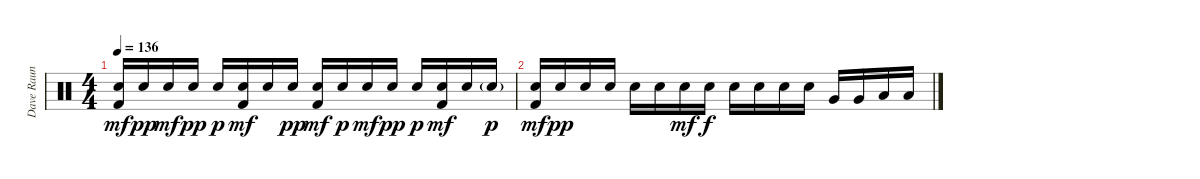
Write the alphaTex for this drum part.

\track ("Dave Raun" "Dave Raun") {instrument percussion}
\staff {score}
\articulation defaults
\ts (4 4)
\tempo 136
\clef neutral
\ks c
("Electric Snare (hit)" "Kick (hit) 2").16{dy mf} "Electric Snare (hit)".16{dy pp} "Electric Snare (hit)".16{dy mf} "Electric Snare (hit)".16{dy pp} "Electric Snare (hit)".16{dy p} ("Electric Snare (hit)" "Kick (hit) 2").16{dy mf} "Electric Snare (hit)".16 "Electric Snare (hit)".16{dy pp} ("Electric Snare (hit)" "Kick (hit) 2").16{dy mf} "Electric Snare (hit)".16{dy p} "Electric Snare (hit)".16{dy mf} "Electric Snare (hit)".16{dy pp} "Electric Snare (hit)".16{dy p} ("Electric Snare (hit)" "Kick (hit) 2").16{dy mf} "Electric Snare (hit)".16 "Electric Snare (hit)"{g}.16{dy p} |
("Electric Snare (hit)" "Kick (hit) 2").16{dy mf} "Electric Snare (hit)".16{dy pp} "Electric Snare (hit)".16 "Electric Snare (hit)".16 "Electric Snare (hit)".16 "Electric Snare (hit)".16 "Electric Snare (hit)".16{dy mf} "Electric Snare (hit)".16{dy f} "Electric Snare (hit)".16 "Electric Snare (hit)".16 "Electric Snare (hit)".16 "Electric Snare (hit)".16 "Very Low Tom (hit)".16 "Very Low Tom (hit)".16 "Low Tom (hit)".16 "Low Tom (hit)".16
